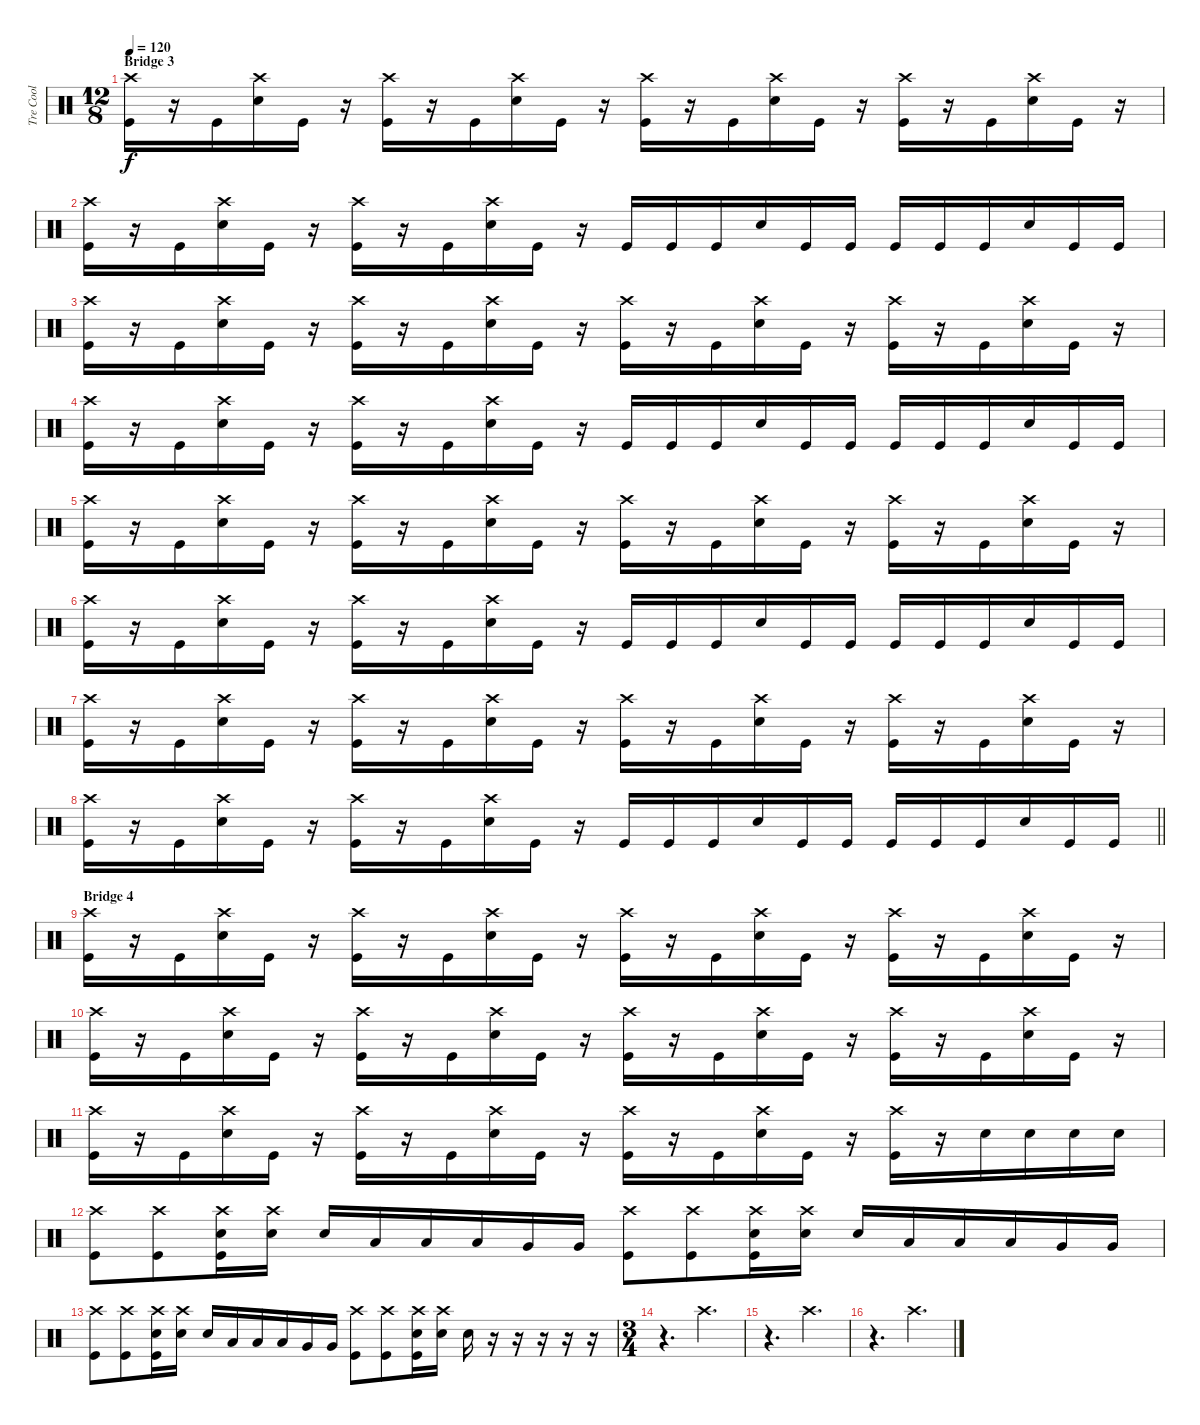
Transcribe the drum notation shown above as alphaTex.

\track ("Tre Cool" "Tre Cool") {instrument percussion}
\staff {score}
\articulation defaults
\ts (12 8)
\section ("" "Bridge 3")
\tempo 120
\clef neutral
\ks c
("Kick (hit)" "Crash high (hit)").16{dy f} r.16 "Kick (hit)".16 ("Snare (hit) 2" "Crash high (hit)").16 "Kick (hit)".16 r.16 ("Kick (hit)" "Crash high (hit)").16 r.16 "Kick (hit)".16 ("Snare (hit) 2" "Crash high (hit)").16 "Kick (hit)".16 r.16 ("Kick (hit)" "Crash high (hit)").16 r.16 "Kick (hit)".16 ("Snare (hit) 2" "Crash high (hit)").16 "Kick (hit)".16 r.16 ("Kick (hit)" "Crash high (hit)").16 r.16 "Kick (hit)".16 ("Snare (hit) 2" "Crash high (hit)").16 "Kick (hit)".16 r.16 |
("Kick (hit)" "Crash high (hit)").16 r.16 "Kick (hit)".16 ("Snare (hit) 2" "Crash high (hit)").16 "Kick (hit)".16 r.16 ("Kick (hit)" "Crash high (hit)").16 r.16 "Kick (hit)".16 ("Snare (hit) 2" "Crash high (hit)").16 "Kick (hit)".16 r.16 "Kick (hit)".16 "Kick (hit)".16 "Kick (hit)".16 "Snare (hit) 2".16 "Kick (hit)".16 "Kick (hit)".16 "Kick (hit)".16 "Kick (hit)".16 "Kick (hit)".16 "Snare (hit) 2".16 "Kick (hit)".16 "Kick (hit)".16 |
("Kick (hit)" "Crash high (hit)").16 r.16 "Kick (hit)".16 ("Snare (hit) 2" "Crash high (hit)").16 "Kick (hit)".16 r.16 ("Kick (hit)" "Crash high (hit)").16 r.16 "Kick (hit)".16 ("Snare (hit) 2" "Crash high (hit)").16 "Kick (hit)".16 r.16 ("Kick (hit)" "Crash high (hit)").16 r.16 "Kick (hit)".16 ("Snare (hit) 2" "Crash high (hit)").16 "Kick (hit)".16 r.16 ("Kick (hit)" "Crash high (hit)").16 r.16 "Kick (hit)".16 ("Snare (hit) 2" "Crash high (hit)").16 "Kick (hit)".16 r.16 |
("Kick (hit)" "Crash high (hit)").16 r.16 "Kick (hit)".16 ("Snare (hit) 2" "Crash high (hit)").16 "Kick (hit)".16 r.16 ("Kick (hit)" "Crash high (hit)").16 r.16 "Kick (hit)".16 ("Snare (hit) 2" "Crash high (hit)").16 "Kick (hit)".16 r.16 "Kick (hit)".16 "Kick (hit)".16 "Kick (hit)".16 "Snare (hit) 2".16 "Kick (hit)".16 "Kick (hit)".16 "Kick (hit)".16 "Kick (hit)".16 "Kick (hit)".16 "Snare (hit) 2".16 "Kick (hit)".16 "Kick (hit)".16 |
("Kick (hit)" "Crash high (hit)").16 r.16 "Kick (hit)".16 ("Snare (hit) 2" "Crash high (hit)").16 "Kick (hit)".16 r.16 ("Kick (hit)" "Crash high (hit)").16 r.16 "Kick (hit)".16 ("Snare (hit) 2" "Crash high (hit)").16 "Kick (hit)".16 r.16 ("Kick (hit)" "Crash high (hit)").16 r.16 "Kick (hit)".16 ("Snare (hit) 2" "Crash high (hit)").16 "Kick (hit)".16 r.16 ("Kick (hit)" "Crash high (hit)").16 r.16 "Kick (hit)".16 ("Snare (hit) 2" "Crash high (hit)").16 "Kick (hit)".16 r.16 |
("Kick (hit)" "Crash high (hit)").16 r.16 "Kick (hit)".16 ("Snare (hit) 2" "Crash high (hit)").16 "Kick (hit)".16 r.16 ("Kick (hit)" "Crash high (hit)").16 r.16 "Kick (hit)".16 ("Snare (hit) 2" "Crash high (hit)").16 "Kick (hit)".16 r.16 "Kick (hit)".16 "Kick (hit)".16 "Kick (hit)".16 "Snare (hit) 2".16 "Kick (hit)".16 "Kick (hit)".16 "Kick (hit)".16 "Kick (hit)".16 "Kick (hit)".16 "Snare (hit) 2".16 "Kick (hit)".16 "Kick (hit)".16 |
("Kick (hit)" "Crash high (hit)").16 r.16 "Kick (hit)".16 ("Snare (hit) 2" "Crash high (hit)").16 "Kick (hit)".16 r.16 ("Kick (hit)" "Crash high (hit)").16 r.16 "Kick (hit)".16 ("Snare (hit) 2" "Crash high (hit)").16 "Kick (hit)".16 r.16 ("Kick (hit)" "Crash high (hit)").16 r.16 "Kick (hit)".16 ("Snare (hit) 2" "Crash high (hit)").16 "Kick (hit)".16 r.16 ("Kick (hit)" "Crash high (hit)").16 r.16 "Kick (hit)".16 ("Snare (hit) 2" "Crash high (hit)").16 "Kick (hit)".16 r.16 |
\barLineRight lightlight
("Kick (hit)" "Crash high (hit)").16 r.16 "Kick (hit)".16 ("Snare (hit) 2" "Crash high (hit)").16 "Kick (hit)".16 r.16 ("Kick (hit)" "Crash high (hit)").16 r.16 "Kick (hit)".16 ("Snare (hit) 2" "Crash high (hit)").16 "Kick (hit)".16 r.16 "Kick (hit)".16 "Kick (hit)".16 "Kick (hit)".16 "Snare (hit) 2".16 "Kick (hit)".16 "Kick (hit)".16 "Kick (hit)".16 "Kick (hit)".16 "Kick (hit)".16 "Snare (hit) 2".16 "Kick (hit)".16 "Kick (hit)".16 |
\section ("" "Bridge 4")
("Kick (hit)" "Crash high (hit)").16 r.16 "Kick (hit)".16 ("Snare (hit) 2" "Crash high (hit)").16 "Kick (hit)".16 r.16 ("Kick (hit)" "Crash high (hit)").16 r.16 "Kick (hit)".16 ("Snare (hit) 2" "Crash high (hit)").16 "Kick (hit)".16 r.16 ("Kick (hit)" "Crash high (hit)").16 r.16 "Kick (hit)".16 ("Snare (hit) 2" "Crash high (hit)").16 "Kick (hit)".16 r.16 ("Kick (hit)" "Crash high (hit)").16 r.16 "Kick (hit)".16 ("Snare (hit) 2" "Crash high (hit)").16 "Kick (hit)".16 r.16 |
("Kick (hit)" "Crash high (hit)").16 r.16 "Kick (hit)".16 ("Snare (hit) 2" "Crash high (hit)").16 "Kick (hit)".16 r.16 ("Kick (hit)" "Crash high (hit)").16 r.16 "Kick (hit)".16 ("Snare (hit) 2" "Crash high (hit)").16 "Kick (hit)".16 r.16 ("Kick (hit)" "Crash high (hit)").16 r.16 "Kick (hit)".16 ("Snare (hit) 2" "Crash high (hit)").16 "Kick (hit)".16 r.16 ("Kick (hit)" "Crash high (hit)").16 r.16 "Kick (hit)".16 ("Snare (hit) 2" "Crash high (hit)").16 "Kick (hit)".16 r.16 |
("Kick (hit)" "Crash high (hit)").16 r.16 "Kick (hit)".16 ("Snare (hit) 2" "Crash high (hit)").16 "Kick (hit)".16 r.16 ("Kick (hit)" "Crash high (hit)").16 r.16 "Kick (hit)".16 ("Snare (hit) 2" "Crash high (hit)").16 "Kick (hit)".16 r.16 ("Kick (hit)" "Crash high (hit)").16 r.16 "Kick (hit)".16 ("Snare (hit) 2" "Crash high (hit)").16 "Kick (hit)".16 r.16 ("Kick (hit)" "Crash high (hit)").16 r.16 "Snare (hit) 2".16 "Snare (hit) 2".16 "Snare (hit) 2".16 "Snare (hit) 2".16 |
("Crash high (hit)" "Kick (hit)").8 ("Crash high (hit)" "Kick (hit)").8 ("Crash high (hit)" "Kick (hit)" "Snare (hit) 2").16 ("Crash high (hit)" "Snare (hit) 2").16 "Snare (hit) 2".16 "Low Floor Tom (hit)".16 "Low Floor Tom (hit)".16 "Low Floor Tom (hit)".16 "Very Low Tom (hit)".16 "Very Low Tom (hit)".16 ("Crash high (hit)" "Kick (hit)").8 ("Crash high (hit)" "Kick (hit)").8 ("Crash high (hit)" "Kick (hit)" "Snare (hit) 2").16 ("Crash high (hit)" "Snare (hit) 2").16 "Snare (hit) 2".16 "Low Floor Tom (hit)".16 "Low Floor Tom (hit)".16 "Low Floor Tom (hit)".16 "Very Low Tom (hit)".16 "Very Low Tom (hit)".16 |
("Crash high (hit)" "Kick (hit)").8 ("Crash high (hit)" "Kick (hit)").8 ("Crash high (hit)" "Kick (hit)" "Snare (hit) 2").16 ("Crash high (hit)" "Snare (hit) 2").16 "Snare (hit) 2".16 "Low Floor Tom (hit)".16 "Low Floor Tom (hit)".16 "Low Floor Tom (hit)".16 "Very Low Tom (hit)".16 "Very Low Tom (hit)".16 ("Crash high (hit)" "Kick (hit)").8 ("Crash high (hit)" "Kick (hit)").8 ("Crash high (hit)" "Kick (hit)" "Snare (hit) 2").16 ("Crash high (hit)" "Snare (hit) 2").16 "Snare (hit) 2".16 r.16 r.16 r.16 r.16 r.16 |
\ts (3 4)
r.4{d} "Crash high (hit)".4{d} |
r.4{d} "Crash high (hit)".4{d} |
r.4{d} "Crash high (hit)".4{d}
